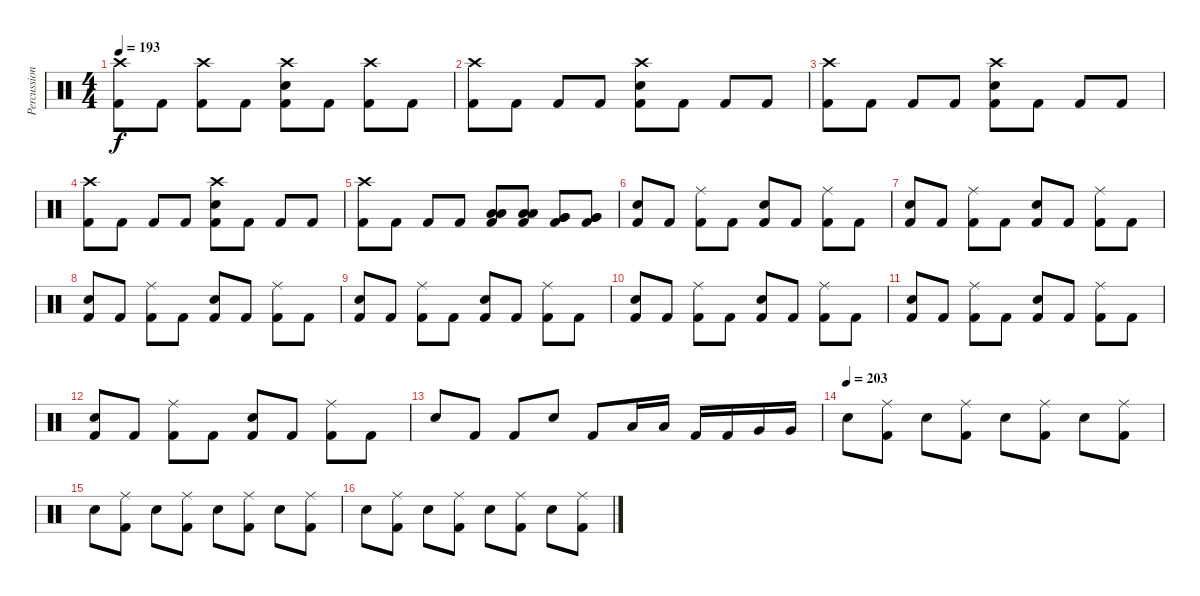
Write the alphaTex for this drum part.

\track ("Percussion" "Percussion") {instrument percussion}
\staff {score}
\articulation defaults
\ts (4 4)
\tempo 193
\clef neutral
\ks c
("Crash high (hit)" "Kick (hit) 2").8{dy f} "Kick (hit) 2".8 ("Crash high (hit)" "Kick (hit) 2").8 "Kick (hit) 2".8 ("Crash high (hit)" "Electric Snare (hit)" "Kick (hit) 2").8 "Kick (hit) 2".8 ("Crash high (hit)" "Kick (hit) 2").8 "Kick (hit) 2".8 |
("Crash high (hit)" "Kick (hit) 2").8 "Kick (hit) 2".8 "Kick (hit) 2".8 "Kick (hit) 2".8 ("Crash high (hit)" "Electric Snare (hit)" "Kick (hit) 2").8 "Kick (hit) 2".8 "Kick (hit) 2".8 "Kick (hit) 2".8 |
("Crash high (hit)" "Kick (hit) 2").8 "Kick (hit) 2".8 "Kick (hit) 2".8 "Kick (hit) 2".8 ("Crash high (hit)" "Electric Snare (hit)" "Kick (hit) 2").8 "Kick (hit) 2".8 "Kick (hit) 2".8 "Kick (hit) 2".8 |
("Crash high (hit)" "Kick (hit) 2").8 "Kick (hit) 2".8 "Kick (hit) 2".8 "Kick (hit) 2".8 ("Crash high (hit)" "Electric Snare (hit)" "Kick (hit) 2").8 "Kick (hit) 2".8 "Kick (hit) 2".8 "Kick (hit) 2".8 |
("Crash high (hit)" "Kick (hit) 2").8 "Kick (hit) 2".8 "Kick (hit) 2".8 "Kick (hit) 2".8 ("Low Tom (hit)" "Low Tom (hit)" "Kick (hit) 2").8 ("Low Tom (hit)" "Low Tom (hit)" "Kick (hit) 2").8 ("Very Low Tom (hit)" "Very Low Tom (hit)" "Kick (hit) 2").8 ("Very Low Tom (hit)" "Very Low Tom (hit)" "Kick (hit) 2").8 |
("Electric Snare (hit)" "Kick (hit) 2").8 "Kick (hit) 2".8 ("Ride (middle)" "Kick (hit) 2").8 "Kick (hit) 2".8 ("Electric Snare (hit)" "Kick (hit) 2").8 "Kick (hit) 2".8 ("Ride (middle)" "Kick (hit) 2").8 "Kick (hit) 2".8 |
("Electric Snare (hit)" "Kick (hit) 2").8 "Kick (hit) 2".8 ("Ride (middle)" "Kick (hit) 2").8 "Kick (hit) 2".8 ("Electric Snare (hit)" "Kick (hit) 2").8 "Kick (hit) 2".8 ("Ride (middle)" "Kick (hit) 2").8 "Kick (hit) 2".8 |
("Electric Snare (hit)" "Kick (hit) 2").8 "Kick (hit) 2".8 ("Ride (middle)" "Kick (hit) 2").8 "Kick (hit) 2".8 ("Electric Snare (hit)" "Kick (hit) 2").8 "Kick (hit) 2".8 ("Ride (middle)" "Kick (hit) 2").8 "Kick (hit) 2".8 |
("Electric Snare (hit)" "Kick (hit) 2").8 "Kick (hit) 2".8 ("Ride (middle)" "Kick (hit) 2").8 "Kick (hit) 2".8 ("Electric Snare (hit)" "Kick (hit) 2").8 "Kick (hit) 2".8 ("Ride (middle)" "Kick (hit) 2").8 "Kick (hit) 2".8 |
("Electric Snare (hit)" "Kick (hit) 2").8 "Kick (hit) 2".8 ("Ride (middle)" "Kick (hit) 2").8 "Kick (hit) 2".8 ("Electric Snare (hit)" "Kick (hit) 2").8 "Kick (hit) 2".8 ("Ride (middle)" "Kick (hit) 2").8 "Kick (hit) 2".8 |
("Electric Snare (hit)" "Kick (hit) 2").8 "Kick (hit) 2".8 ("Ride (middle)" "Kick (hit) 2").8 "Kick (hit) 2".8 ("Electric Snare (hit)" "Kick (hit) 2").8 "Kick (hit) 2".8 ("Ride (middle)" "Kick (hit) 2").8 "Kick (hit) 2".8 |
("Electric Snare (hit)" "Kick (hit) 2").8 "Kick (hit) 2".8 ("Ride (middle)" "Kick (hit) 2").8 "Kick (hit) 2".8 ("Electric Snare (hit)" "Kick (hit) 2").8 "Kick (hit) 2".8 ("Ride (middle)" "Kick (hit) 2").8 "Kick (hit) 2".8 |
"Electric Snare (hit)".8 "Kick (hit) 2".8 "Kick (hit) 2".8 "Electric Snare (hit)".8 "Kick (hit) 2".8 "Low Tom (hit)".16 "Low Tom (hit)".16 "Kick (hit) 2".16 "Kick (hit) 2".16 "Very Low Tom (hit)".16 "Very Low Tom (hit)".16 |
\tempo (203)
"Electric Snare (hit)".8 ("Ride (middle)" "Kick (hit) 2").8 "Electric Snare (hit)".8 ("Ride (middle)" "Kick (hit) 2").8 "Electric Snare (hit)".8 ("Ride (middle)" "Kick (hit) 2").8 "Electric Snare (hit)".8 ("Ride (middle)" "Kick (hit) 2").8 |
"Electric Snare (hit)".8 ("Ride (middle)" "Kick (hit) 2").8 "Electric Snare (hit)".8 ("Ride (middle)" "Kick (hit) 2").8 "Electric Snare (hit)".8 ("Ride (middle)" "Kick (hit) 2").8 "Electric Snare (hit)".8 ("Ride (middle)" "Kick (hit) 2").8 |
"Electric Snare (hit)".8 ("Ride (middle)" "Kick (hit) 2").8 "Electric Snare (hit)".8 ("Ride (middle)" "Kick (hit) 2").8 "Electric Snare (hit)".8 ("Ride (middle)" "Kick (hit) 2").8 "Electric Snare (hit)".8 ("Ride (middle)" "Kick (hit) 2").8
